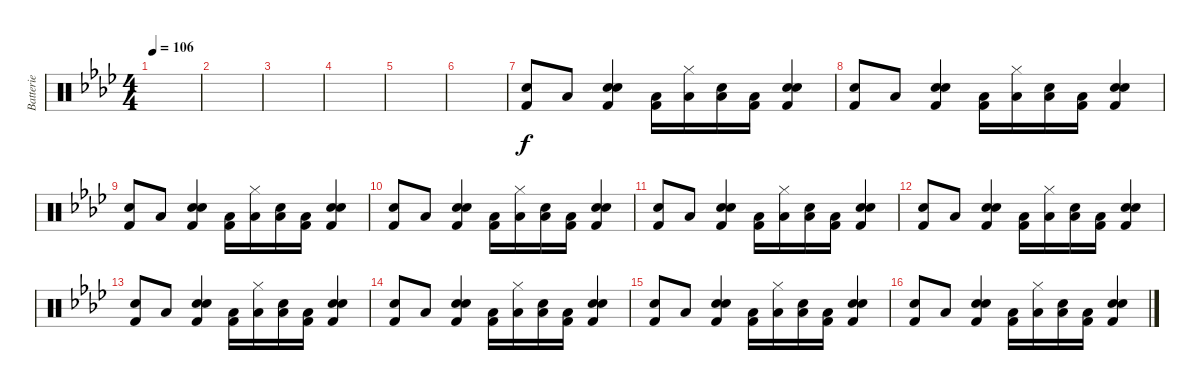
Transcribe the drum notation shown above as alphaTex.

\track ("Batterie" "Batterie") {instrument percussion}
\staff {score}
\articulation defaults
\ts (4 4)
\tempo 106
\clef neutral
\ks ab
|
|
|
|
|
|
("Kick (hit) 2" "Electric Snare (hit)").8 "Low Floor Tom (hit)".8 ("Snare (hit) 2" "Kick (hit) 2" "Electric Snare (hit)").4 ("Kick (hit) 2" "Low Floor Tom (hit)").16 ("Low Floor Tom (hit)" "Hi-Hat (closed)").16 ("Low Floor Tom (hit)" "Electric Snare (hit)").16 ("Kick (hit) 2" "Low Floor Tom (hit)").16 ("Snare (hit) 2" "Kick (hit) 2" "Electric Snare (hit)").4 |
("Kick (hit) 2" "Electric Snare (hit)").8 "Low Floor Tom (hit)".8 ("Snare (hit) 2" "Kick (hit) 2" "Electric Snare (hit)").4 ("Kick (hit) 2" "Low Floor Tom (hit)").16 ("Low Floor Tom (hit)" "Hi-Hat (closed)").16 ("Low Floor Tom (hit)" "Electric Snare (hit)").16 ("Kick (hit) 2" "Low Floor Tom (hit)").16 ("Snare (hit) 2" "Kick (hit) 2" "Electric Snare (hit)").4 |
("Kick (hit) 2" "Electric Snare (hit)").8 "Low Floor Tom (hit)".8 ("Snare (hit) 2" "Kick (hit) 2" "Electric Snare (hit)").4 ("Kick (hit) 2" "Low Floor Tom (hit)").16 ("Low Floor Tom (hit)" "Hi-Hat (closed)").16 ("Low Floor Tom (hit)" "Electric Snare (hit)").16 ("Kick (hit) 2" "Low Floor Tom (hit)").16 ("Snare (hit) 2" "Kick (hit) 2" "Electric Snare (hit)").4 |
("Kick (hit) 2" "Electric Snare (hit)").8 "Low Floor Tom (hit)".8 ("Snare (hit) 2" "Kick (hit) 2" "Electric Snare (hit)").4 ("Kick (hit) 2" "Low Floor Tom (hit)").16 ("Low Floor Tom (hit)" "Hi-Hat (closed)").16 ("Low Floor Tom (hit)" "Electric Snare (hit)").16 ("Kick (hit) 2" "Low Floor Tom (hit)").16 ("Snare (hit) 2" "Kick (hit) 2" "Electric Snare (hit)").4 |
("Kick (hit) 2" "Electric Snare (hit)").8 "Low Floor Tom (hit)".8 ("Snare (hit) 2" "Kick (hit) 2" "Electric Snare (hit)").4 ("Kick (hit) 2" "Low Floor Tom (hit)").16 ("Low Floor Tom (hit)" "Hi-Hat (closed)").16 ("Low Floor Tom (hit)" "Electric Snare (hit)").16 ("Kick (hit) 2" "Low Floor Tom (hit)").16 ("Snare (hit) 2" "Kick (hit) 2" "Electric Snare (hit)").4 |
("Kick (hit) 2" "Electric Snare (hit)").8 "Low Floor Tom (hit)".8 ("Snare (hit) 2" "Kick (hit) 2" "Electric Snare (hit)").4 ("Kick (hit) 2" "Low Floor Tom (hit)").16 ("Low Floor Tom (hit)" "Hi-Hat (closed)").16 ("Low Floor Tom (hit)" "Electric Snare (hit)").16 ("Kick (hit) 2" "Low Floor Tom (hit)").16 ("Snare (hit) 2" "Kick (hit) 2" "Electric Snare (hit)").4 |
("Kick (hit) 2" "Electric Snare (hit)").8 "Low Floor Tom (hit)".8 ("Snare (hit) 2" "Kick (hit) 2" "Electric Snare (hit)").4 ("Kick (hit) 2" "Low Floor Tom (hit)").16 ("Low Floor Tom (hit)" "Hi-Hat (closed)").16 ("Low Floor Tom (hit)" "Electric Snare (hit)").16 ("Kick (hit) 2" "Low Floor Tom (hit)").16 ("Snare (hit) 2" "Kick (hit) 2" "Electric Snare (hit)").4 |
("Kick (hit) 2" "Electric Snare (hit)").8 "Low Floor Tom (hit)".8 ("Snare (hit) 2" "Kick (hit) 2" "Electric Snare (hit)").4 ("Kick (hit) 2" "Low Floor Tom (hit)").16 ("Low Floor Tom (hit)" "Hi-Hat (closed)").16 ("Low Floor Tom (hit)" "Electric Snare (hit)").16 ("Kick (hit) 2" "Low Floor Tom (hit)").16 ("Snare (hit) 2" "Kick (hit) 2" "Electric Snare (hit)").4 |
("Kick (hit) 2" "Electric Snare (hit)").8 "Low Floor Tom (hit)".8 ("Snare (hit) 2" "Kick (hit) 2" "Electric Snare (hit)").4 ("Kick (hit) 2" "Low Floor Tom (hit)").16 ("Low Floor Tom (hit)" "Hi-Hat (closed)").16 ("Low Floor Tom (hit)" "Electric Snare (hit)").16 ("Kick (hit) 2" "Low Floor Tom (hit)").16 ("Snare (hit) 2" "Kick (hit) 2" "Electric Snare (hit)").4 |
("Kick (hit) 2" "Electric Snare (hit)").8 "Low Floor Tom (hit)".8 ("Snare (hit) 2" "Kick (hit) 2" "Electric Snare (hit)").4 ("Kick (hit) 2" "Low Floor Tom (hit)").16 ("Low Floor Tom (hit)" "Hi-Hat (closed)").16 ("Low Floor Tom (hit)" "Electric Snare (hit)").16 ("Kick (hit) 2" "Low Floor Tom (hit)").16 ("Snare (hit) 2" "Kick (hit) 2" "Electric Snare (hit)").4
